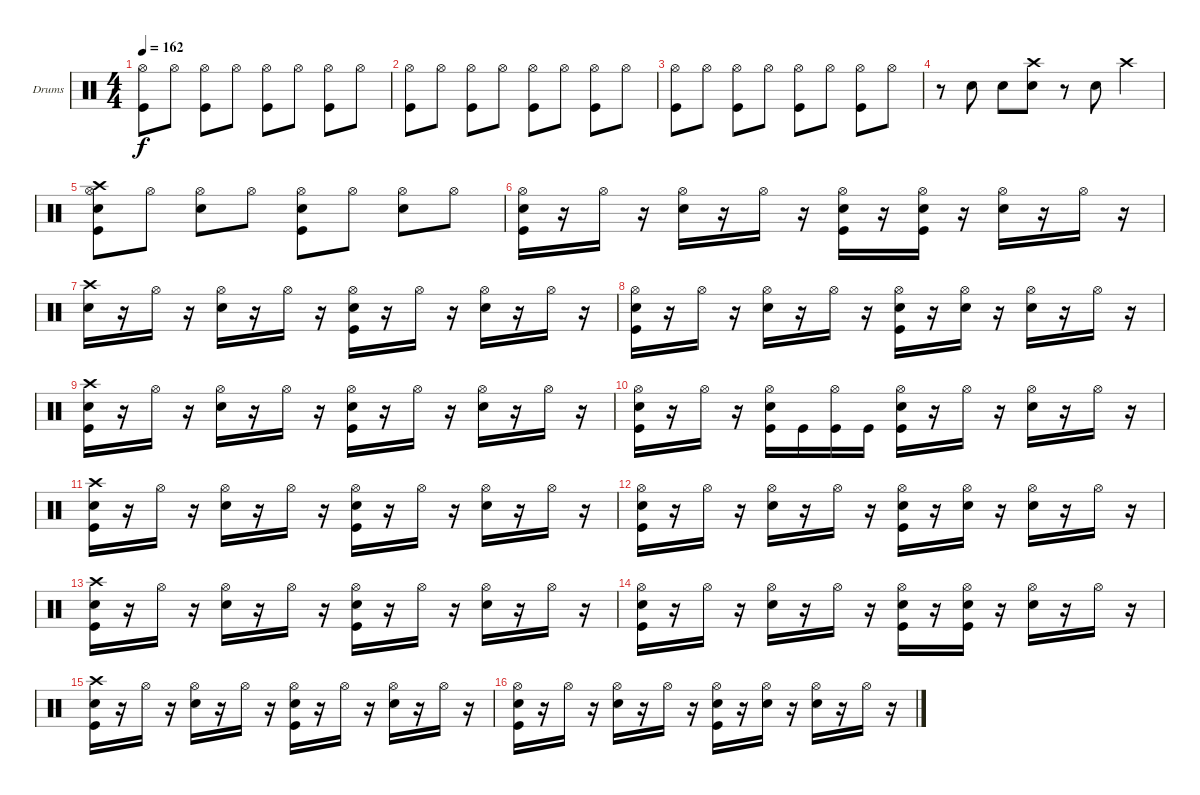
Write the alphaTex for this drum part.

\bracketExtendMode groupsimilarinstruments
\firstSystemTrackNameOrientation horizontal
\otherSystemsTrackNameOrientation horizontal
\track ("Drumkit" "Drums") {instrument percussion}
\staff {score}
\articulation defaults
\ts (4 4)
\tempo 162
\clef neutral
\ks c
("Hi-Hat (open)" "Kick (hit)").8{dy f} "Hi-Hat (open)".8 ("Hi-Hat (open)" "Kick (hit)").8 "Hi-Hat (open)".8 ("Hi-Hat (open)" "Kick (hit)").8 "Hi-Hat (open)".8 ("Hi-Hat (open)" "Kick (hit)").8 "Hi-Hat (open)".8 |
("Hi-Hat (open)" "Kick (hit)").8 "Hi-Hat (open)".8 ("Hi-Hat (open)" "Kick (hit)").8 "Hi-Hat (open)".8 ("Hi-Hat (open)" "Kick (hit)").8 "Hi-Hat (open)".8 ("Hi-Hat (open)" "Kick (hit)").8 "Hi-Hat (open)".8 |
("Hi-Hat (open)" "Kick (hit)").8 "Hi-Hat (open)".8 ("Hi-Hat (open)" "Kick (hit)").8 "Hi-Hat (open)".8 ("Hi-Hat (open)" "Kick (hit)").8 "Hi-Hat (open)".8 ("Hi-Hat (open)" "Kick (hit)").8 "Hi-Hat (open)".8 |
r.8 "Snare (hit) 2".8 "Snare (hit) 2".8 ("Crash high (hit)" "Snare (hit) 2").8 r.8 "Snare (hit) 2".8 "Crash high (hit)".4 |
("Crash high (hit)" "Snare (hit) 2" "Hi-Hat (open)" "Kick (hit)").8 "Hi-Hat (open)".8 ("Hi-Hat (open)" "Snare (hit) 2").8 "Hi-Hat (open)".8 ("Snare (hit) 2" "Hi-Hat (open)" "Kick (hit)").8 "Hi-Hat (open)".8 ("Hi-Hat (open)" "Snare (hit) 2").8 "Hi-Hat (open)".8 |
("Snare (hit) 2" "Hi-Hat (open)" "Kick (hit)").16 r.16 "Hi-Hat (open)".16 r.16 ("Snare (hit) 2" "Hi-Hat (open)").16 r.16 "Hi-Hat (open)".16 r.16 ("Snare (hit) 2" "Hi-Hat (open)" "Kick (hit)").16 r.16 ("Snare (hit) 2" "Kick (hit)" "Hi-Hat (open)").16 r.16 ("Snare (hit) 2" "Hi-Hat (open)").16 r.16 "Hi-Hat (open)".16 r.16 |
("Crash high (hit)" "Snare (hit) 2").16 r.16 "Hi-Hat (open)".16 r.16 ("Snare (hit) 2" "Hi-Hat (open)").16 r.16 "Hi-Hat (open)".16 r.16 ("Snare (hit) 2" "Hi-Hat (open)" "Kick (hit)").16 r.16 "Hi-Hat (open)".16 r.16 ("Snare (hit) 2" "Hi-Hat (open)").16 r.16 "Hi-Hat (open)".16 r.16 |
("Snare (hit) 2" "Hi-Hat (open)" "Kick (hit)").16 r.16 "Hi-Hat (open)".16 r.16 ("Snare (hit) 2" "Hi-Hat (open)").16 r.16 "Hi-Hat (open)".16 r.16 ("Snare (hit) 2" "Hi-Hat (open)" "Kick (hit)").16 r.16 ("Hi-Hat (open)" "Snare (hit) 2").16 r.16 ("Snare (hit) 2" "Hi-Hat (open)").16 r.16 "Hi-Hat (open)".16 r.16 |
("Crash high (hit)" "Snare (hit) 2" "Kick (hit)").16 r.16 "Hi-Hat (open)".16 r.16 ("Snare (hit) 2" "Hi-Hat (open)").16 r.16 "Hi-Hat (open)".16 r.16 ("Snare (hit) 2" "Hi-Hat (open)" "Kick (hit)").16 r.16 "Hi-Hat (open)".16 r.16 ("Snare (hit) 2" "Hi-Hat (open)").16 r.16 "Hi-Hat (open)".16 r.16 |
("Snare (hit) 2" "Hi-Hat (open)" "Kick (hit)").16 r.16 "Hi-Hat (open)".16 r.16 ("Snare (hit) 2" "Hi-Hat (open)" "Kick (hit)").16 "Kick (hit)".16 ("Hi-Hat (open)" "Kick (hit)").16 "Kick (hit)".16 ("Snare (hit) 2" "Hi-Hat (open)" "Kick (hit)").16 r.16 "Hi-Hat (open)".16 r.16 ("Snare (hit) 2" "Hi-Hat (open)").16 r.16 "Hi-Hat (open)".16 r.16 |
("Crash high (hit)" "Snare (hit) 2" "Kick (hit)").16 r.16 "Hi-Hat (open)".16 r.16 ("Snare (hit) 2" "Hi-Hat (open)").16 r.16 "Hi-Hat (open)".16 r.16 ("Snare (hit) 2" "Hi-Hat (open)" "Kick (hit)").16 r.16 "Hi-Hat (open)".16 r.16 ("Snare (hit) 2" "Hi-Hat (open)").16 r.16 "Hi-Hat (open)".16 r.16 |
("Snare (hit) 2" "Hi-Hat (open)" "Kick (hit)").16 r.16 "Hi-Hat (open)".16 r.16 ("Snare (hit) 2" "Hi-Hat (open)").16 r.16 "Hi-Hat (open)".16 r.16 ("Snare (hit) 2" "Hi-Hat (open)" "Kick (hit)").16 r.16 ("Hi-Hat (open)" "Snare (hit) 2").16 r.16 ("Snare (hit) 2" "Hi-Hat (open)").16 r.16 "Hi-Hat (open)".16 r.16 |
("Crash high (hit)" "Snare (hit) 2" "Kick (hit)").16 r.16 "Hi-Hat (open)".16 r.16 ("Snare (hit) 2" "Hi-Hat (open)").16 r.16 "Hi-Hat (open)".16 r.16 ("Snare (hit) 2" "Hi-Hat (open)" "Kick (hit)").16 r.16 "Hi-Hat (open)".16 r.16 ("Snare (hit) 2" "Hi-Hat (open)").16 r.16 "Hi-Hat (open)".16 r.16 |
("Snare (hit) 2" "Hi-Hat (open)" "Kick (hit)").16 r.16 "Hi-Hat (open)".16 r.16 ("Snare (hit) 2" "Hi-Hat (open)").16 r.16 "Hi-Hat (open)".16 r.16 ("Snare (hit) 2" "Hi-Hat (open)" "Kick (hit)").16 r.16 ("Snare (hit) 2" "Kick (hit)" "Hi-Hat (open)").16 r.16 ("Snare (hit) 2" "Hi-Hat (open)").16 r.16 "Hi-Hat (open)".16 r.16 |
("Crash high (hit)" "Snare (hit) 2" "Kick (hit)").16 r.16 "Hi-Hat (open)".16 r.16 ("Snare (hit) 2" "Hi-Hat (open)").16 r.16 "Hi-Hat (open)".16 r.16 ("Snare (hit) 2" "Hi-Hat (open)" "Kick (hit)").16 r.16 "Hi-Hat (open)".16 r.16 ("Snare (hit) 2" "Hi-Hat (open)").16 r.16 "Hi-Hat (open)".16 r.16 |
("Snare (hit) 2" "Hi-Hat (open)" "Kick (hit)").16 r.16 "Hi-Hat (open)".16 r.16 ("Snare (hit) 2" "Hi-Hat (open)").16 r.16 "Hi-Hat (open)".16 r.16 ("Snare (hit) 2" "Hi-Hat (open)" "Kick (hit)").16 r.16 ("Hi-Hat (open)" "Snare (hit) 2").16 r.16 ("Snare (hit) 2" "Hi-Hat (open)").16 r.16 "Hi-Hat (open)".16 r.16
